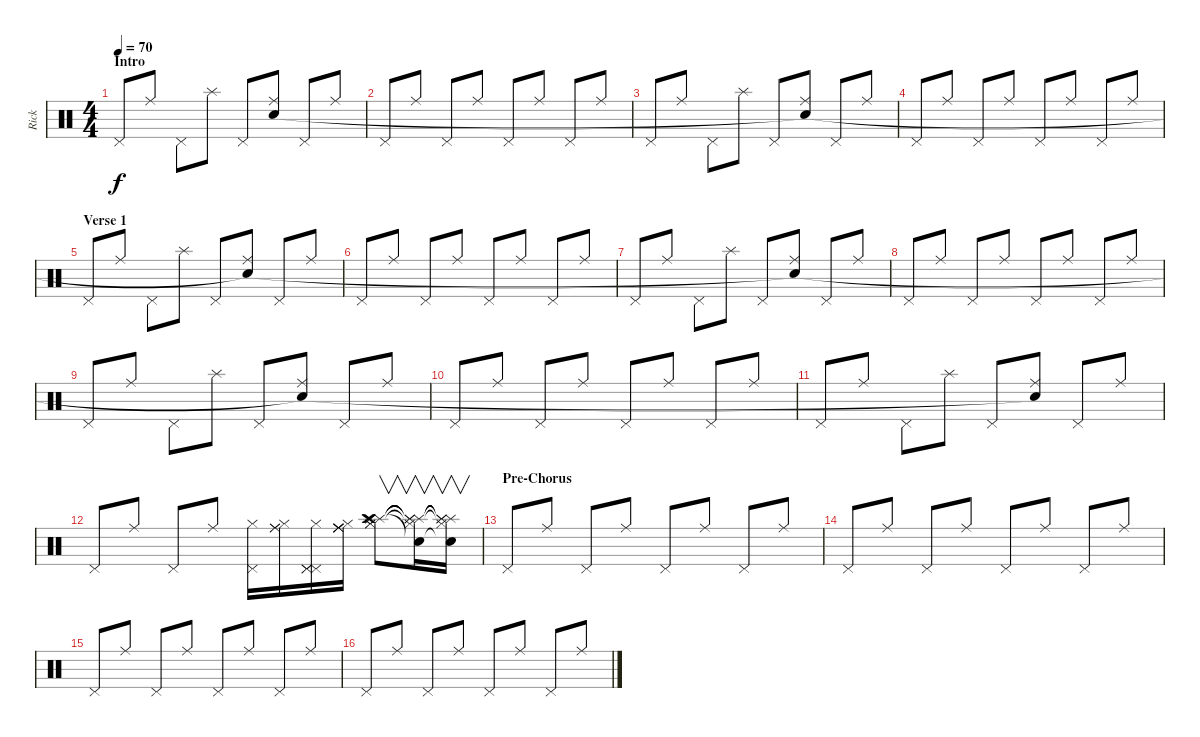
\track ("Rick" "Rick") {instrument percussion}
\staff {score}
\articulation defaults
\ts (4 4)
\section ("" "Intro")
\tempo 70
\clef neutral
\ks c "Pedal Hi-Hat (hit)".8{dy f} "Ride (middle)".8 "Pedal Hi-Hat (hit)".8 "Splash (hit)".8 "Pedal Hi-Hat (hit)".8
("Ride (middle)" "Snare (hit)").8 "Pedal Hi-Hat (hit)".8 "Ride (middle)".8 |
"Pedal Hi-Hat (hit)".8 "Ride (middle)".8 "Pedal Hi-Hat (hit)".8 "Ride (middle)".8 "Pedal Hi-Hat (hit)".8 "Ride (middle)".8 "Pedal Hi-Hat (hit)".8 "Ride (middle)".8 |
"Pedal Hi-Hat (hit)".8 "Ride (middle)".8 "Pedal Hi-Hat (hit)".8 "Splash (hit)".8 "Pedal Hi-Hat (hit)".8 ("Ride (middle)" "Snare (hit)"{t}).8 "Pedal Hi-Hat (hit)".8 "Ride (middle)".8 |
"Pedal Hi-Hat (hit)".8 "Ride (middle)".8 "Pedal Hi-Hat (hit)".8 "Ride (middle)".8 "Pedal Hi-Hat (hit)".8 "Ride (middle)".8 "Pedal Hi-Hat (hit)".8 "Ride (middle)".8 |
\section ("" "Verse 1")
"Pedal Hi-Hat (hit)".8 "Ride (middle)".8 "Pedal Hi-Hat (hit)".8 "Splash (hit)".8 "Pedal Hi-Hat (hit)".8 ("Ride (middle)" "Snare (hit)"{t}).8 "Pedal Hi-Hat (hit)".8 "Ride (middle)".8 |
"Pedal Hi-Hat (hit)".8 "Ride (middle)".8 "Pedal Hi-Hat (hit)".8 "Ride (middle)".8 "Pedal Hi-Hat (hit)".8 "Ride (middle)".8 "Pedal Hi-Hat (hit)".8 "Ride (middle)".8 |
"Pedal Hi-Hat (hit)".8 "Ride (middle)".8 "Pedal Hi-Hat (hit)".8 "Splash (hit)".8 "Pedal Hi-Hat (hit)".8 ("Ride (middle)" "Snare (hit)"{t}).8 "Pedal Hi-Hat (hit)".8 "Ride (middle)".8 |
"Pedal Hi-Hat (hit)".8 "Ride (middle)".8 "Pedal Hi-Hat (hit)".8 "Ride (middle)".8 "Pedal Hi-Hat (hit)".8 "Ride (middle)".8 "Pedal Hi-Hat (hit)".8 "Ride (middle)".8 |
"Pedal Hi-Hat (hit)".8 "Ride (middle)".8 "Pedal Hi-Hat (hit)".8 "Splash (hit)".8 "Pedal Hi-Hat (hit)".8 ("Ride (middle)" "Snare (hit)"{t}).8 "Pedal Hi-Hat (hit)".8 "Ride (middle)".8 |
"Pedal Hi-Hat (hit)".8 "Ride (middle)".8 "Pedal Hi-Hat (hit)".8 "Ride (middle)".8 "Pedal Hi-Hat (hit)".8 "Ride (middle)".8 "Pedal Hi-Hat (hit)".8 "Ride (middle)".8 |
"Pedal Hi-Hat (hit)".8 "Ride (middle)".8 "Pedal Hi-Hat (hit)".8 "Splash (hit)".8 "Pedal Hi-Hat (hit)".8 ("Ride (middle)" "Snare (hit)"{t}).8 "Pedal Hi-Hat (hit)".8 "Ride (middle)".8 |
"Pedal Hi-Hat (hit)".8 "Ride (middle)".8 "Pedal Hi-Hat (hit)".8 "Ride (middle)".8 ("Pedal Hi-Hat (hit)" "Hi-Hat (closed)").16 ("Ride (middle)" "Ride (middle)" "Hi-Hat (closed)").16 ("Pedal Hi-Hat (hit)" "Pedal Hi-Hat (hit)" "Pedal Hi-Hat (hit)" "Hi-Hat (closed)").16 ("Ride (middle)" "Ride (middle)" "Ride (middle)" "Ride (middle)" "Hi-Hat (closed)").16 ("Hi-Hat (closed)" "Splash (hit)" "Splash (hit)" "Splash (hit)" "Crash high (hit)" "Hi-Hat (closed)").8{v} ("Hi-Hat (closed)"{t} "Splash (hit)"{t} "Splash (hit)"{t} "Splash (hit)"{t} "Snare (hit)"{t}).16{v} ("Hi-Hat (closed)"{t} "Splash (hit)"{t} "Splash (hit)"{t} "Splash (hit)"{t} "Snare (hit)"{t}).16{v} |
\section ("" "Pre-Chorus")
"Pedal Hi-Hat (hit)".8 "Ride (middle)".8 "Pedal Hi-Hat (hit)".8 "Ride (middle)".8 "Pedal Hi-Hat (hit)".8 "Ride (middle)".8 "Pedal Hi-Hat (hit)".8 "Ride (middle)".8 |
"Pedal Hi-Hat (hit)".8 "Ride (middle)".8 "Pedal Hi-Hat (hit)".8 "Ride (middle)".8 "Pedal Hi-Hat (hit)".8 "Ride (middle)".8 "Pedal Hi-Hat (hit)".8 "Ride (middle)".8 |
"Pedal Hi-Hat (hit)".8 "Ride (middle)".8 "Pedal Hi-Hat (hit)".8 "Ride (middle)".8 "Pedal Hi-Hat (hit)".8 "Ride (middle)".8 "Pedal Hi-Hat (hit)".8 "Ride (middle)".8 |
"Pedal Hi-Hat (hit)".8 "Ride (middle)".8 "Pedal Hi-Hat (hit)".8 "Ride (middle)".8 "Pedal Hi-Hat (hit)".8 "Ride (middle)".8 "Pedal Hi-Hat (hit)".8 "Ride (middle)".8
